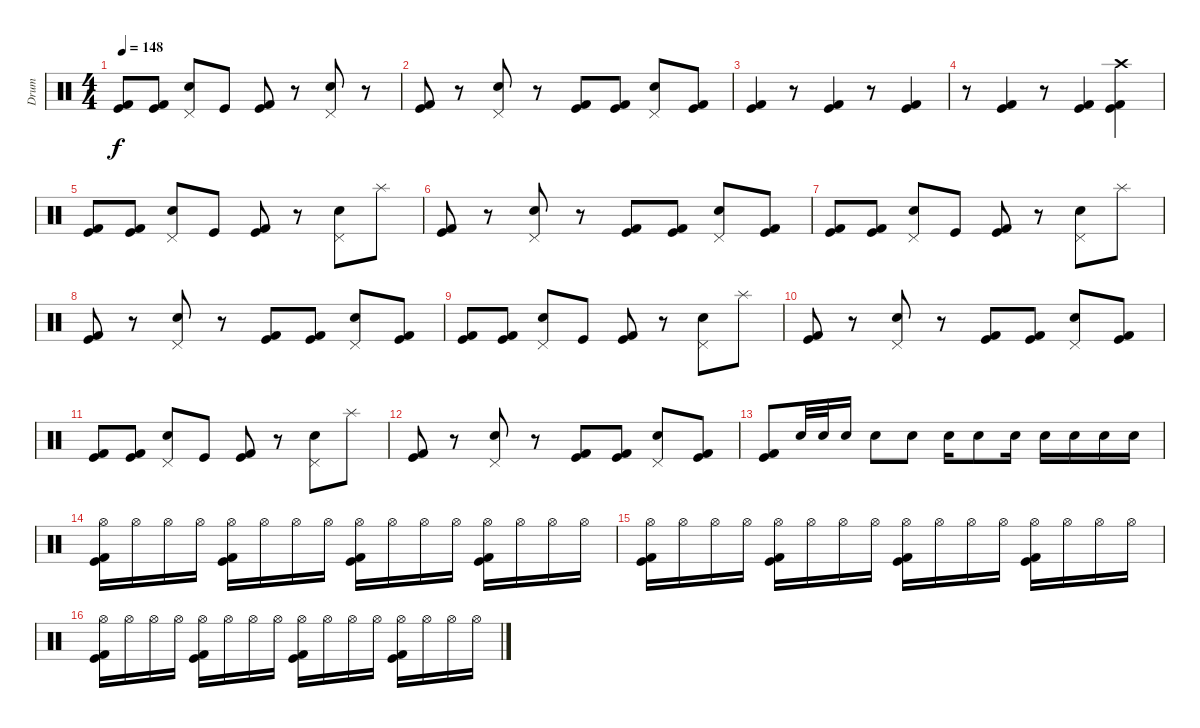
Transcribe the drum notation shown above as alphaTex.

\track ("Drum" "Drum") {instrument percussion}
\staff {score}
\articulation defaults
\ts (4 4)
\tempo 148
\clef neutral
\ks c
("Kick (hit)" "Kick (hit) 2").8{dy f} ("Kick (hit)" "Kick (hit) 2").8 ("Pedal Hi-Hat (hit)" "Snare (hit) 2").8 "Kick (hit)".8 ("Kick (hit)" "Kick (hit) 2").8 r.8 ("Pedal Hi-Hat (hit)" "Snare (hit) 2").8 r.8 |
("Kick (hit)" "Kick (hit) 2").8 r.8 ("Pedal Hi-Hat (hit)" "Snare (hit) 2").8 r.8 ("Kick (hit)" "Kick (hit) 2").8 ("Kick (hit)" "Kick (hit) 2").8 ("Pedal Hi-Hat (hit)" "Snare (hit) 2").8 ("Kick (hit)" "Kick (hit) 2").8 |
("Kick (hit)" "Kick (hit) 2").4 r.8 ("Kick (hit)" "Kick (hit) 2").4 r.8 ("Kick (hit)" "Kick (hit) 2").4 |
r.8 ("Kick (hit)" "Kick (hit) 2").4 r.8 ("Kick (hit)" "Kick (hit) 2").4 ("Crash high (hit)" "Kick (hit)" "Kick (hit) 2").4 |
("Kick (hit)" "Kick (hit) 2").8 ("Kick (hit)" "Kick (hit) 2").8 ("Pedal Hi-Hat (hit)" "Snare (hit) 2").8 "Kick (hit)".8 ("Kick (hit)" "Kick (hit) 2").8 r.8 ("Pedal Hi-Hat (hit)" "Snare (hit) 2").8 "Splash (hit)".8 |
("Kick (hit)" "Kick (hit) 2").8 r.8 ("Pedal Hi-Hat (hit)" "Snare (hit) 2").8 r.8 ("Kick (hit)" "Kick (hit) 2").8 ("Kick (hit)" "Kick (hit) 2").8 ("Pedal Hi-Hat (hit)" "Snare (hit) 2").8 ("Kick (hit)" "Kick (hit) 2").8 |
("Kick (hit)" "Kick (hit) 2").8 ("Kick (hit)" "Kick (hit) 2").8 ("Pedal Hi-Hat (hit)" "Snare (hit) 2").8 "Kick (hit)".8 ("Kick (hit)" "Kick (hit) 2").8 r.8 ("Pedal Hi-Hat (hit)" "Snare (hit) 2").8 "Splash (hit)".8 |
("Kick (hit)" "Kick (hit) 2").8 r.8 ("Pedal Hi-Hat (hit)" "Snare (hit) 2").8 r.8 ("Kick (hit)" "Kick (hit) 2").8 ("Kick (hit)" "Kick (hit) 2").8 ("Pedal Hi-Hat (hit)" "Snare (hit) 2").8 ("Kick (hit)" "Kick (hit) 2").8 |
("Kick (hit)" "Kick (hit) 2").8 ("Kick (hit)" "Kick (hit) 2").8 ("Pedal Hi-Hat (hit)" "Snare (hit) 2").8 "Kick (hit)".8 ("Kick (hit)" "Kick (hit) 2").8 r.8 ("Pedal Hi-Hat (hit)" "Snare (hit) 2").8 "Splash (hit)".8 |
("Kick (hit)" "Kick (hit) 2").8 r.8 ("Pedal Hi-Hat (hit)" "Snare (hit) 2").8 r.8 ("Kick (hit)" "Kick (hit) 2").8 ("Kick (hit)" "Kick (hit) 2").8 ("Pedal Hi-Hat (hit)" "Snare (hit) 2").8 ("Kick (hit)" "Kick (hit) 2").8 |
("Kick (hit)" "Kick (hit) 2").8 ("Kick (hit)" "Kick (hit) 2").8 ("Pedal Hi-Hat (hit)" "Snare (hit) 2").8 "Kick (hit)".8 ("Kick (hit)" "Kick (hit) 2").8 r.8 ("Pedal Hi-Hat (hit)" "Snare (hit) 2").8 "Splash (hit)".8 |
("Kick (hit)" "Kick (hit) 2").8 r.8 ("Pedal Hi-Hat (hit)" "Snare (hit) 2").8 r.8 ("Kick (hit)" "Kick (hit) 2").8 ("Kick (hit)" "Kick (hit) 2").8 ("Pedal Hi-Hat (hit)" "Snare (hit) 2").8 ("Kick (hit)" "Kick (hit) 2").8 |
("Kick (hit)" "Kick (hit) 2").8 "Electric Snare (hit)".32 "Electric Snare (hit)".32 "Electric Snare (hit)".16 "Electric Snare (hit)".8 "Electric Snare (hit)".8 "Electric Snare (hit)".16 "Electric Snare (hit)".8 "Electric Snare (hit)".16 "Electric Snare (hit)".16 "Electric Snare (hit)".16 "Electric Snare (hit)".16 "Electric Snare (hit)".16 |
("Hi-Hat (open)" "Kick (hit)" "Kick (hit) 2").16 "Hi-Hat (open)".16 "Hi-Hat (open)".16 "Hi-Hat (open)".16 ("Hi-Hat (open)" "Kick (hit)" "Kick (hit) 2").16 "Hi-Hat (open)".16 "Hi-Hat (open)".16 "Hi-Hat (open)".16 ("Hi-Hat (open)" "Kick (hit)" "Kick (hit) 2").16 "Hi-Hat (open)".16 "Hi-Hat (open)".16 "Hi-Hat (open)".16 ("Hi-Hat (open)" "Kick (hit)" "Kick (hit) 2").16 "Hi-Hat (open)".16 "Hi-Hat (open)".16 "Hi-Hat (open)".16 |
("Hi-Hat (open)" "Kick (hit)" "Kick (hit) 2").16 "Hi-Hat (open)".16 "Hi-Hat (open)".16 "Hi-Hat (open)".16 ("Hi-Hat (open)" "Kick (hit)" "Kick (hit) 2").16 "Hi-Hat (open)".16 "Hi-Hat (open)".16 "Hi-Hat (open)".16 ("Hi-Hat (open)" "Kick (hit)" "Kick (hit) 2").16 "Hi-Hat (open)".16 "Hi-Hat (open)".16 "Hi-Hat (open)".16 ("Hi-Hat (open)" "Kick (hit)" "Kick (hit) 2").16 "Hi-Hat (open)".16 "Hi-Hat (open)".16 "Hi-Hat (open)".16 |
("Hi-Hat (open)" "Kick (hit)" "Kick (hit) 2").16 "Hi-Hat (open)".16 "Hi-Hat (open)".16 "Hi-Hat (open)".16 ("Hi-Hat (open)" "Kick (hit)" "Kick (hit) 2").16 "Hi-Hat (open)".16 "Hi-Hat (open)".16 "Hi-Hat (open)".16 ("Hi-Hat (open)" "Kick (hit)" "Kick (hit) 2").16 "Hi-Hat (open)".16 "Hi-Hat (open)".16 "Hi-Hat (open)".16 ("Hi-Hat (open)" "Kick (hit)" "Kick (hit) 2").16 "Hi-Hat (open)".16 "Hi-Hat (open)".16 "Hi-Hat (open)".16
